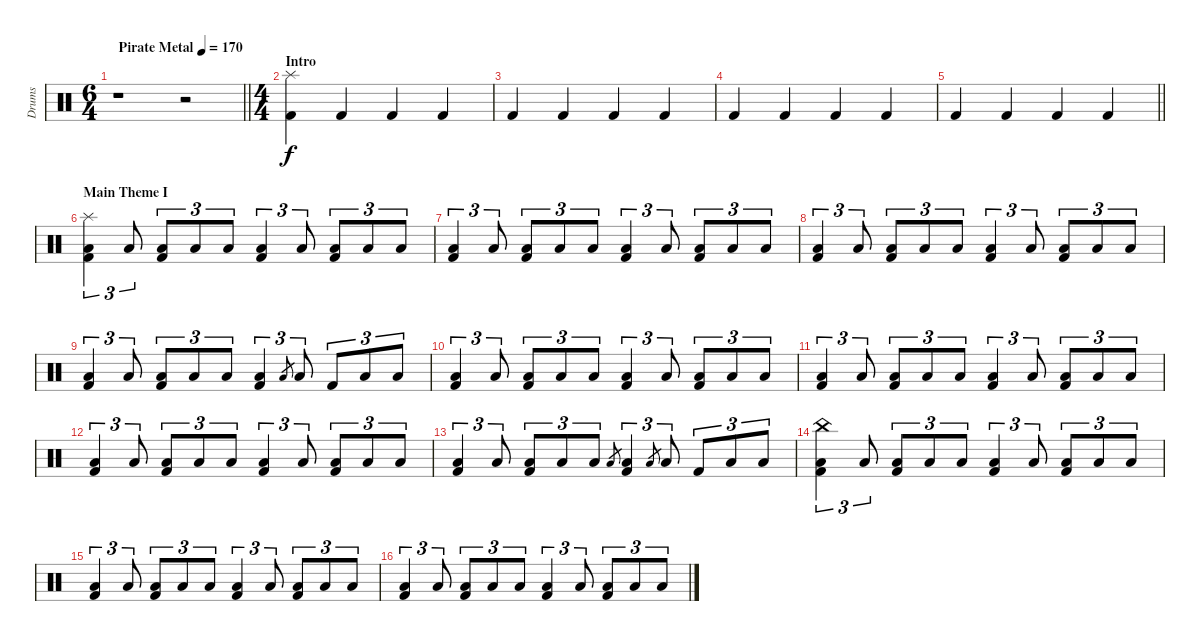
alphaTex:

\track ("Drums" "Drums") {instrument percussion}
\staff {score}
\articulation defaults
\ts (6 4)
\tempo (170 "Pirate Metal")
\clef neutral
\barLineRight lightlight
\ks c
r.1{dy f} r.2 |
\ts (4 4)
\section ("" "Intro")
("Splash (hit)" "Kick (hit) 2").4{volume 16 balance 8} "Kick (hit) 2".4 "Kick (hit) 2".4 "Kick (hit) 2".4 |
"Kick (hit) 2".4 "Kick (hit) 2".4 "Kick (hit) 2".4 "Kick (hit) 2".4 |
"Kick (hit) 2".4 "Kick (hit) 2".4 "Kick (hit) 2".4 "Kick (hit) 2".4 |
\barLineRight lightlight "Kick (hit) 2".4 "Kick (hit) 2".4 "Kick (hit) 2".4 "Kick (hit) 2".4
|
\section ("" "Main Theme I")
("Splash (hit)" "Low Floor Tom (hit)" "Kick (hit) 2").4{tu (3 2)} "Low Floor Tom (hit)".8{tu (3 2)} ("Low Floor Tom (hit)" "Kick (hit) 2").8{tu (3 2)} "Low Floor Tom (hit)".8{tu (3 2)} "Low Floor Tom (hit)".8{tu (3 2)} ("Low Floor Tom (hit)" "Kick (hit) 2").4{tu (3 2)} "Low Floor Tom (hit)".8{tu (3 2)} ("Low Floor Tom (hit)" "Kick (hit) 2").8{tu (3 2)} "Low Floor Tom (hit)".8{tu (3 2)} "Low Floor Tom (hit)".8{tu (3 2)} |
("Low Floor Tom (hit)" "Kick (hit) 2").4{tu (3 2)} "Low Floor Tom (hit)".8{tu (3 2)} ("Low Floor Tom (hit)" "Kick (hit) 2").8{tu (3 2)} "Low Floor Tom (hit)".8{tu (3 2)} "Low Floor Tom (hit)".8{tu (3 2)} ("Low Floor Tom (hit)" "Kick (hit) 2").4{tu (3 2)} "Low Floor Tom (hit)".8{tu (3 2)} ("Low Floor Tom (hit)" "Kick (hit) 2").8{tu (3 2)} "Low Floor Tom (hit)".8{tu (3 2)} "Low Floor Tom (hit)".8{tu (3 2)} |
("Low Floor Tom (hit)" "Kick (hit) 2").4{tu (3 2)} "Low Floor Tom (hit)".8{tu (3 2)} ("Low Floor Tom (hit)" "Kick (hit) 2").8{tu (3 2)} "Low Floor Tom (hit)".8{tu (3 2)} "Low Floor Tom (hit)".8{tu (3 2)} ("Low Floor Tom (hit)" "Kick (hit) 2").4{tu (3 2)} "Low Floor Tom (hit)".8{tu (3 2)} ("Low Floor Tom (hit)" "Kick (hit) 2").8{tu (3 2)} "Low Floor Tom (hit)".8{tu (3 2)} "Low Floor Tom (hit)".8{tu (3 2)} |
("Low Floor Tom (hit)" "Kick (hit) 2").4{tu (3 2)} "Low Floor Tom (hit)".8{tu (3 2)} ("Low Floor Tom (hit)" "Kick (hit) 2").8{tu (3 2)} "Low Floor Tom (hit)".8{tu (3 2)} "Low Floor Tom (hit)".8{tu (3 2)} ("Low Floor Tom (hit)" "Kick (hit) 2").4{tu (3 2)} "Low Floor Tom (hit)".8{gr} "Low Floor Tom (hit)".8{tu (3 2)} "Kick (hit) 2".8{tu (3 2)} "Low Floor Tom (hit)".8{tu (3 2)} "Low Floor Tom (hit)".8{tu (3 2)} |
("Low Floor Tom (hit)" "Kick (hit) 2").4{tu (3 2)} "Low Floor Tom (hit)".8{tu (3 2)} ("Low Floor Tom (hit)" "Kick (hit) 2").8{tu (3 2)} "Low Floor Tom (hit)".8{tu (3 2)} "Low Floor Tom (hit)".8{tu (3 2)} ("Low Floor Tom (hit)" "Kick (hit) 2").4{tu (3 2)} "Low Floor Tom (hit)".8{tu (3 2)} ("Low Floor Tom (hit)" "Kick (hit) 2").8{tu (3 2)} "Low Floor Tom (hit)".8{tu (3 2)} "Low Floor Tom (hit)".8{tu (3 2)} |
("Low Floor Tom (hit)" "Kick (hit) 2").4{tu (3 2)} "Low Floor Tom (hit)".8{tu (3 2)} ("Low Floor Tom (hit)" "Kick (hit) 2").8{tu (3 2)} "Low Floor Tom (hit)".8{tu (3 2)} "Low Floor Tom (hit)".8{tu (3 2)} ("Low Floor Tom (hit)" "Kick (hit) 2").4{tu (3 2)} "Low Floor Tom (hit)".8{tu (3 2)} ("Low Floor Tom (hit)" "Kick (hit) 2").8{tu (3 2)} "Low Floor Tom (hit)".8{tu (3 2)} "Low Floor Tom (hit)".8{tu (3 2)} |
("Low Floor Tom (hit)" "Kick (hit) 2").4{tu (3 2)} "Low Floor Tom (hit)".8{tu (3 2)} ("Low Floor Tom (hit)" "Kick (hit) 2").8{tu (3 2)} "Low Floor Tom (hit)".8{tu (3 2)} "Low Floor Tom (hit)".8{tu (3 2)} ("Low Floor Tom (hit)" "Kick (hit) 2").4{tu (3 2)} "Low Floor Tom (hit)".8{tu (3 2)} ("Low Floor Tom (hit)" "Kick (hit) 2").8{tu (3 2)} "Low Floor Tom (hit)".8{tu (3 2)} "Low Floor Tom (hit)".8{tu (3 2)} |
("Low Floor Tom (hit)" "Kick (hit) 2").4{tu (3 2)} "Low Floor Tom (hit)".8{tu (3 2)} ("Low Floor Tom (hit)" "Kick (hit) 2").8{tu (3 2)} "Low Floor Tom (hit)".8{tu (3 2)} "Low Floor Tom (hit)".8{tu (3 2)} "Low Floor Tom (hit)".8{gr} ("Low Floor Tom (hit)" "Kick (hit) 2").4{tu (3 2)} "Low Floor Tom (hit)".8{gr} "Low Floor Tom (hit)".8{tu (3 2)} "Kick (hit) 2".8{tu (3 2)} "Low Floor Tom (hit)".8{tu (3 2)} "Low Floor Tom (hit)".8{tu (3 2)} |
("China (hit)" "Low Floor Tom (hit)" "Kick (hit) 2").4{tu (3 2)} "Low Floor Tom (hit)".8{tu (3 2)} ("Low Floor Tom (hit)" "Kick (hit) 2").8{tu (3 2)} "Low Floor Tom (hit)".8{tu (3 2)} "Low Floor Tom (hit)".8{tu (3 2)} ("Low Floor Tom (hit)" "Kick (hit) 2").4{tu (3 2)} "Low Floor Tom (hit)".8{tu (3 2)} ("Low Floor Tom (hit)" "Kick (hit) 2").8{tu (3 2)} "Low Floor Tom (hit)".8{tu (3 2)} "Low Floor Tom (hit)".8{tu (3 2)} |
("Low Floor Tom (hit)" "Kick (hit) 2").4{tu (3 2)} "Low Floor Tom (hit)".8{tu (3 2)} ("Low Floor Tom (hit)" "Kick (hit) 2").8{tu (3 2)} "Low Floor Tom (hit)".8{tu (3 2)} "Low Floor Tom (hit)".8{tu (3 2)} ("Low Floor Tom (hit)" "Kick (hit) 2").4{tu (3 2)} "Low Floor Tom (hit)".8{tu (3 2)} ("Low Floor Tom (hit)" "Kick (hit) 2").8{tu (3 2)} "Low Floor Tom (hit)".8{tu (3 2)} "Low Floor Tom (hit)".8{tu (3 2)} |
("Low Floor Tom (hit)" "Kick (hit) 2").4{tu (3 2)} "Low Floor Tom (hit)".8{tu (3 2)} ("Low Floor Tom (hit)" "Kick (hit) 2").8{tu (3 2)} "Low Floor Tom (hit)".8{tu (3 2)} "Low Floor Tom (hit)".8{tu (3 2)} ("Low Floor Tom (hit)" "Kick (hit) 2").4{tu (3 2)} "Low Floor Tom (hit)".8{tu (3 2)} ("Low Floor Tom (hit)" "Kick (hit) 2").8{tu (3 2)} "Low Floor Tom (hit)".8{tu (3 2)} "Low Floor Tom (hit)".8{tu (3 2)}
